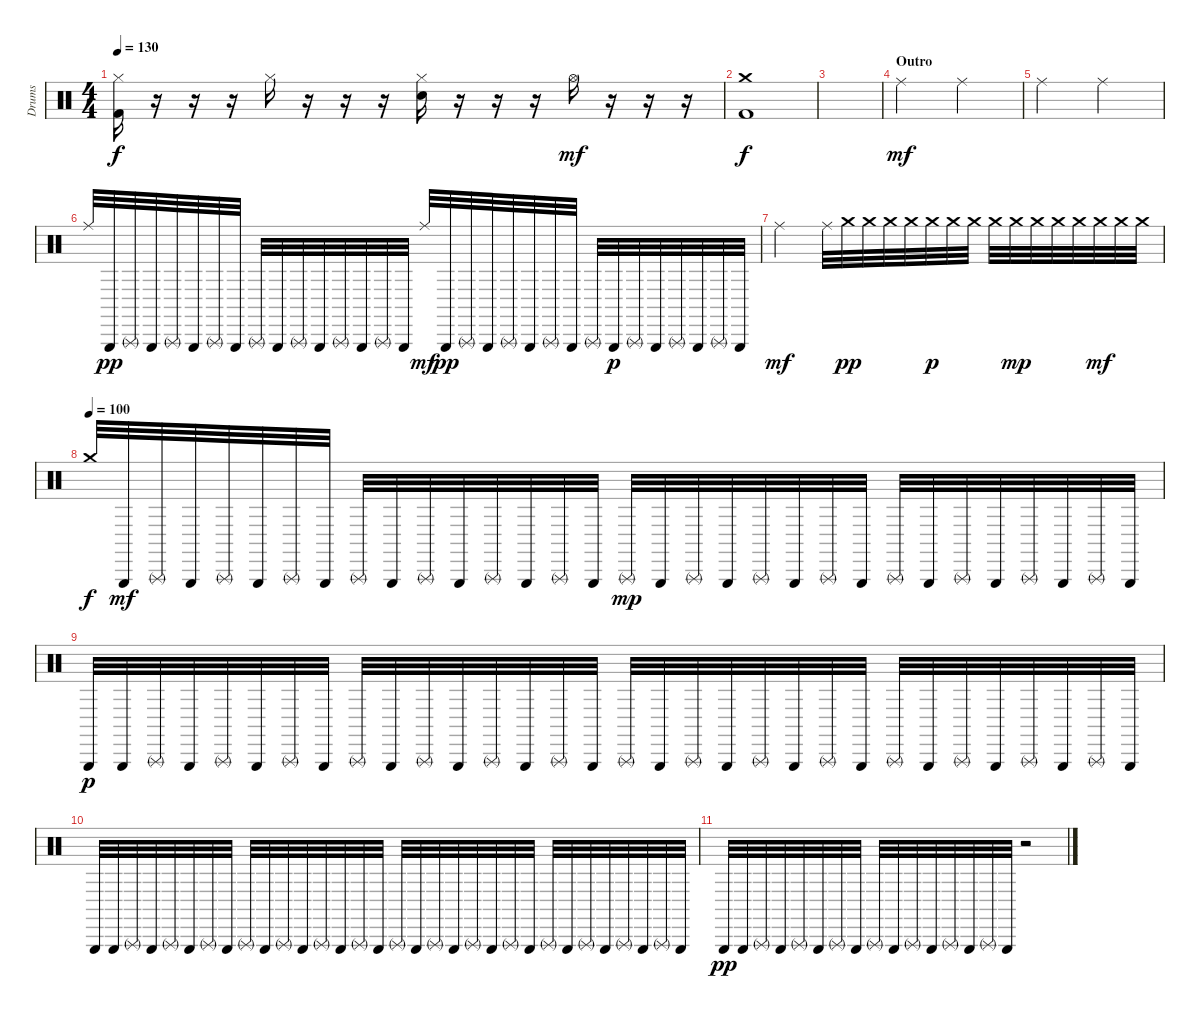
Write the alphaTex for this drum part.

\track ("Drums" "Drums") {instrument percussion}
\staff {score}
\articulation defaults
\ts (4 4)
\tempo 130
\clef neutral
\ks c
("Hi-Hat (closed)" "Kick (hit) 2").16{dy f} r.16 r.16 r.16 "Hi-Hat (closed)".16 r.16 r.16 r.16 ("Hi-Hat (closed)" "Snare (hit) 2").16 r.16 r.16 r.16 "Hi-Hat (open)".16{dy mf} r.16 r.16 r.16 |
("Crash medium (hit)" "Kick (hit) 2").1{dy f} |
|
\section ("" "Outro")
"Ride (middle)".2{dy mf} "Ride (middle)".2 |
"Ride (middle)".2 "Ride (middle)".2 |
"Ride (middle)".32 "Triangle (hit)".32{dy pp} "Triangle (rnute)".32 "Triangle (hit)".32 "Triangle (rnute)".32 "Triangle (hit)".32 "Triangle (rnute)".32 "Triangle (hit)".32 "Triangle (rnute)".32 "Triangle (hit)".32 "Triangle (rnute)".32 "Triangle (hit)".32 "Triangle (rnute)".32 "Triangle (hit)".32 "Triangle (rnute)".32 "Triangle (hit)".32 "Ride (middle)".32{dy mf} "Triangle (hit)".32{dy pp} "Triangle (rnute)".32 "Triangle (hit)".32 "Triangle (rnute)".32 "Triangle (hit)".32 "Triangle (rnute)".32 "Triangle (hit)".32 "Triangle (rnute)".32 "Triangle (hit)".32{dy p} "Triangle (rnute)".32 "Triangle (hit)".32 "Triangle (rnute)".32 "Triangle (hit)".32 "Triangle (rnute)".32 "Triangle (hit)".32 |
"Ride (middle)".2{dy mf} "Ride (middle)".32 "Crash medium (hit)".32{dy pp} "Crash medium (hit)".32 "Crash medium (hit)".32 "Crash medium (hit)".32 "Crash medium (hit)".32{dy p} "Crash medium (hit)".32 "Crash medium (hit)".32 "Crash medium (hit)".32 "Crash medium (hit)".32{dy mp} "Crash medium (hit)".32 "Crash medium (hit)".32 "Crash medium (hit)".32 "Crash medium (hit)".32{dy mf} "Crash medium (hit)".32 "Crash medium (hit)".32 |
\tempo (100)
"Crash medium (hit)".32{dy f} "Triangle (hit)".32{dy mf} "Triangle (rnute)".32 "Triangle (hit)".32 "Triangle (rnute)".32 "Triangle (hit)".32 "Triangle (rnute)".32 "Triangle (hit)".32 "Triangle (rnute)".32 "Triangle (hit)".32 "Triangle (rnute)".32 "Triangle (hit)".32 "Triangle (rnute)".32 "Triangle (hit)".32 "Triangle (rnute)".32 "Triangle (hit)".32 "Triangle (rnute)".32{dy mp} "Triangle (hit)".32 "Triangle (rnute)".32 "Triangle (hit)".32 "Triangle (rnute)".32 "Triangle (hit)".32 "Triangle (rnute)".32 "Triangle (hit)".32 "Triangle (rnute)".32 "Triangle (hit)".32 "Triangle (rnute)".32 "Triangle (hit)".32 "Triangle (rnute)".32 "Triangle (hit)".32 "Triangle (rnute)".32 "Triangle (hit)".32 |
"Triangle (hit)".32{dy p} "Triangle (hit)".32 "Triangle (rnute)".32 "Triangle (hit)".32 "Triangle (rnute)".32 "Triangle (hit)".32 "Triangle (rnute)".32 "Triangle (hit)".32 "Triangle (rnute)".32 "Triangle (hit)".32 "Triangle (rnute)".32 "Triangle (hit)".32 "Triangle (rnute)".32 "Triangle (hit)".32 "Triangle (rnute)".32 "Triangle (hit)".32 "Triangle (rnute)".32 "Triangle (hit)".32 "Triangle (rnute)".32 "Triangle (hit)".32 "Triangle (rnute)".32 "Triangle (hit)".32 "Triangle (rnute)".32 "Triangle (hit)".32 "Triangle (rnute)".32 "Triangle (hit)".32 "Triangle (rnute)".32 "Triangle (hit)".32 "Triangle (rnute)".32 "Triangle (hit)".32 "Triangle (rnute)".32 "Triangle (hit)".32 |
"Triangle (hit)".32 "Triangle (hit)".32 "Triangle (rnute)".32 "Triangle (hit)".32 "Triangle (rnute)".32 "Triangle (hit)".32 "Triangle (rnute)".32 "Triangle (hit)".32 "Triangle (rnute)".32 "Triangle (hit)".32 "Triangle (rnute)".32 "Triangle (hit)".32 "Triangle (rnute)".32 "Triangle (hit)".32 "Triangle (rnute)".32 "Triangle (hit)".32 "Triangle (rnute)".32 "Triangle (hit)".32 "Triangle (rnute)".32 "Triangle (hit)".32 "Triangle (rnute)".32 "Triangle (hit)".32 "Triangle (rnute)".32 "Triangle (hit)".32 "Triangle (rnute)".32 "Triangle (hit)".32 "Triangle (rnute)".32 "Triangle (hit)".32 "Triangle (rnute)".32 "Triangle (hit)".32 "Triangle (rnute)".32 "Triangle (hit)".32 |
"Triangle (hit)".32{dy pp} "Triangle (hit)".32 "Triangle (rnute)".32 "Triangle (hit)".32 "Triangle (rnute)".32 "Triangle (hit)".32 "Triangle (rnute)".32 "Triangle (hit)".32 "Triangle (rnute)".32 "Triangle (hit)".32 "Triangle (rnute)".32 "Triangle (hit)".32 "Triangle (rnute)".32 "Triangle (hit)".32 "Triangle (rnute)".32 "Triangle (hit)".32 r.2
